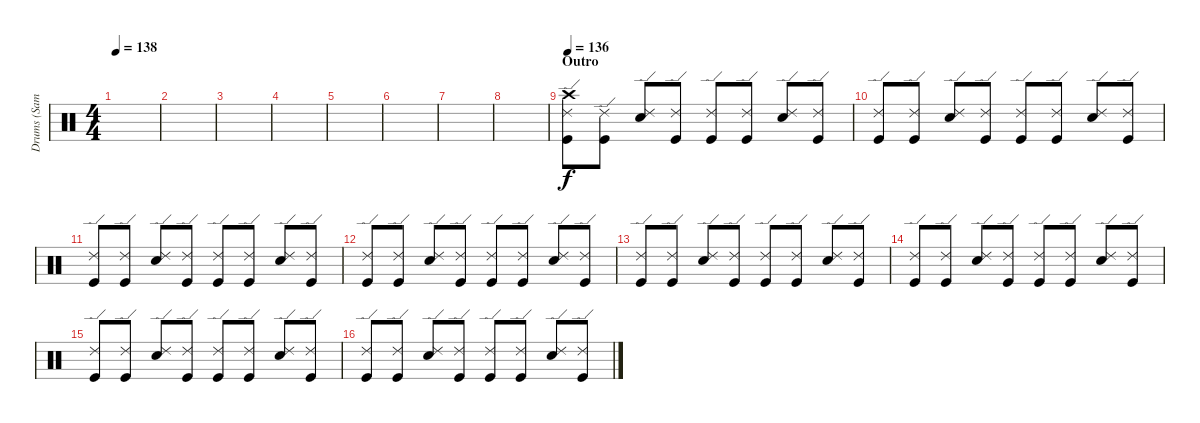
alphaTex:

\track ("Drums (Sam)" "Drums (Sam") {instrument percussion}
\staff {score}
\articulation defaults
\ts (4 4)
\tempo 138
\clef neutral
\ks c
|
|
|
|
|
|
|
|
\section ("" "Outro")
\tempo 136
("Crash high (hit)" "Ride (edge) 2" "Kick (hit)").8 ("Ride (edge) 2" "Kick (hit)").8 ("Ride (edge) 2" "Snare (hit) 2").8 ("Ride (edge) 2" "Kick (hit)").8 ("Ride (edge) 2" "Kick (hit)").8 ("Ride (edge) 2" "Kick (hit)").8 ("Ride (edge) 2" "Snare (hit) 2").8 ("Ride (edge) 2" "Kick (hit)").8 |
("Ride (edge) 2" "Kick (hit)").8 ("Ride (edge) 2" "Kick (hit)").8 ("Ride (edge) 2" "Snare (hit) 2").8 ("Ride (edge) 2" "Kick (hit)").8 ("Ride (edge) 2" "Kick (hit)").8 ("Ride (edge) 2" "Kick (hit)").8 ("Ride (edge) 2" "Snare (hit) 2").8 ("Ride (edge) 2" "Kick (hit)").8 |
("Ride (edge) 2" "Kick (hit)").8 ("Ride (edge) 2" "Kick (hit)").8 ("Ride (edge) 2" "Snare (hit) 2").8 ("Ride (edge) 2" "Kick (hit)").8 ("Ride (edge) 2" "Kick (hit)").8 ("Ride (edge) 2" "Kick (hit)").8 ("Ride (edge) 2" "Snare (hit) 2").8 ("Ride (edge) 2" "Kick (hit)").8 |
("Ride (edge) 2" "Kick (hit)").8 ("Ride (edge) 2" "Kick (hit)").8 ("Ride (edge) 2" "Snare (hit) 2").8 ("Ride (edge) 2" "Kick (hit)").8 ("Ride (edge) 2" "Kick (hit)").8 ("Ride (edge) 2" "Kick (hit)").8 ("Ride (edge) 2" "Snare (hit) 2").8 ("Ride (edge) 2" "Kick (hit)").8 |
("Ride (edge) 2" "Kick (hit)").8 ("Ride (edge) 2" "Kick (hit)").8 ("Ride (edge) 2" "Snare (hit) 2").8 ("Ride (edge) 2" "Kick (hit)").8 ("Ride (edge) 2" "Kick (hit)").8 ("Ride (edge) 2" "Kick (hit)").8 ("Ride (edge) 2" "Snare (hit) 2").8 ("Ride (edge) 2" "Kick (hit)").8 |
("Ride (edge) 2" "Kick (hit)").8 ("Ride (edge) 2" "Kick (hit)").8 ("Ride (edge) 2" "Snare (hit) 2").8 ("Ride (edge) 2" "Kick (hit)").8 ("Ride (edge) 2" "Kick (hit)").8 ("Ride (edge) 2" "Kick (hit)").8 ("Ride (edge) 2" "Snare (hit) 2").8 ("Ride (edge) 2" "Kick (hit)").8 |
("Ride (edge) 2" "Kick (hit)").8 ("Ride (edge) 2" "Kick (hit)").8 ("Ride (edge) 2" "Snare (hit) 2").8 ("Ride (edge) 2" "Kick (hit)").8 ("Ride (edge) 2" "Kick (hit)").8 ("Ride (edge) 2" "Kick (hit)").8 ("Ride (edge) 2" "Snare (hit) 2").8 ("Ride (edge) 2" "Kick (hit)").8 |
("Ride (edge) 2" "Kick (hit)").8 ("Ride (edge) 2" "Kick (hit)").8 ("Ride (edge) 2" "Snare (hit) 2").8 ("Ride (edge) 2" "Kick (hit)").8 ("Ride (edge) 2" "Kick (hit)").8 ("Ride (edge) 2" "Kick (hit)").8 ("Ride (edge) 2" "Snare (hit) 2").8 ("Ride (edge) 2" "Kick (hit)").8
